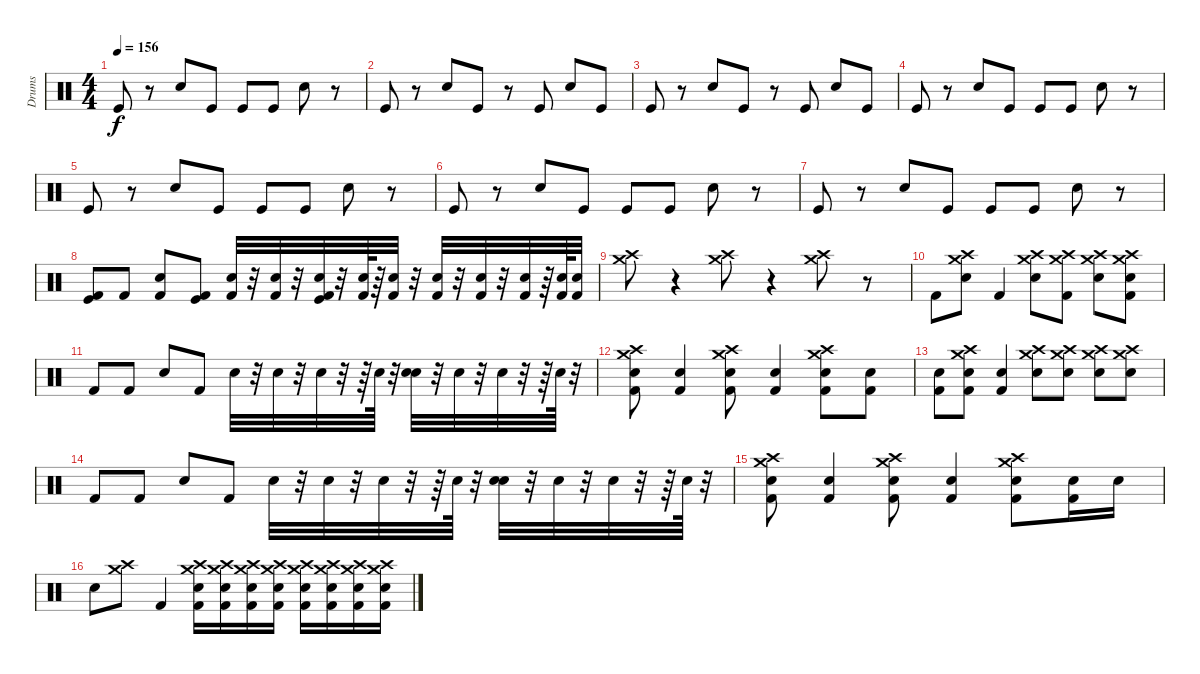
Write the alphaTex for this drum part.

\track ("Drums" "Drums") {instrument percussion}
\staff {score}
\articulation defaults
\ts (4 4)
\tempo 156
\clef neutral
\ks c "Kick (hit)".8{dy f}
r.8 "Snare (hit) 2".8 "Kick (hit)".8 "Kick (hit)".8 "Kick (hit)".8 "Snare (hit) 2".8 r.8 |
"Kick (hit)".8 r.8 "Snare (hit) 2".8 "Kick (hit)".8 r.8 "Kick (hit)".8 "Snare (hit) 2".8 "Kick (hit)".8 |
"Kick (hit)".8 r.8 "Snare (hit) 2".8 "Kick (hit)".8 r.8 "Kick (hit)".8 "Snare (hit) 2".8 "Kick (hit)".8 |
"Kick (hit)".8 r.8 "Snare (hit) 2".8 "Kick (hit)".8 "Kick (hit)".8 "Kick (hit)".8 "Snare (hit) 2".8 r.8 |
"Kick (hit)".8 r.8 "Snare (hit) 2".8 "Kick (hit)".8 "Kick (hit)".8 "Kick (hit)".8 "Snare (hit) 2".8 r.8 |
"Kick (hit)".8 r.8 "Snare (hit) 2".8 "Kick (hit)".8 "Kick (hit)".8 "Kick (hit)".8 "Snare (hit) 2".8 r.8 |
"Kick (hit)".8 r.8 "Snare (hit) 2".8 "Kick (hit)".8 "Kick (hit)".8 "Kick (hit)".8 "Snare (hit) 2".8 r.8 |
("Kick (hit)" "Kick (hit) 2").8 "Kick (hit) 2".8 ("Snare (hit) 2" "Kick (hit) 2").8 ("Kick (hit)" "Kick (hit) 2").8 ("Electric Snare (hit)" "Kick (hit) 2").32 r.32 ("Electric Snare (hit)" "Kick (hit) 2").32 r.32 ("Kick (hit)" "Electric Snare (hit)" "Kick (hit) 2").32 r.32 ("Electric Snare (hit)" "Kick (hit) 2").64 r.64 ("Electric Snare (hit)" "Kick (hit) 2").32 r.32 ("Electric Snare (hit)" "Kick (hit) 2").32 r.32 ("Electric Snare (hit)" "Kick (hit) 2").32 r.32 ("Electric Snare (hit)" "Kick (hit) 2").32 r.64 ("Electric Snare (hit)" "Kick (hit) 2").64 ("Electric Snare (hit)" "Kick (hit) 2").32 |
("Crash high (hit)" "Crash medium (hit)").8 r.4 ("Crash high (hit)" "Crash medium (hit)").8 r.4 ("Crash high (hit)" "Crash medium (hit)").8 r.8 |
"Kick (hit) 2".8 ("Crash high (hit)" "Crash medium (hit)" "Electric Snare (hit)").8 "Kick (hit) 2".4 ("Crash high (hit)" "Crash medium (hit)" "Electric Snare (hit)").8 ("Crash high (hit)" "Crash medium (hit)" "Kick (hit) 2").8 ("Crash high (hit)" "Crash medium (hit)" "Electric Snare (hit)").8 ("Crash high (hit)" "Crash medium (hit)" "Snare (hit) 2" "Kick (hit) 2").8 |
"Kick (hit) 2".8 "Kick (hit) 2".8 "Electric Snare (hit)".8 "Kick (hit) 2".8 "Electric Snare (hit)".32 r.32 "Electric Snare (hit)".32 r.32 "Electric Snare (hit)".32 r.32 r.64 "Electric Snare (hit)".64 r.32 ("Snare (hit) 2" "Electric Snare (hit)").32 r.32 "Electric Snare (hit)".32 r.32 "Electric Snare (hit)".32 r.32 r.64 "Electric Snare (hit)".64 r.32 |
("Crash high (hit)" "Crash medium (hit)" "Kick (hit) 2" "Electric Snare (hit)").8 ("Kick (hit) 2" "Electric Snare (hit)").4 ("Crash high (hit)" "Crash medium (hit)" "Kick (hit) 2" "Electric Snare (hit)").8 ("Kick (hit) 2" "Electric Snare (hit)").4 ("Crash high (hit)" "Crash medium (hit)" "Kick (hit) 2" "Electric Snare (hit)").8 ("Kick (hit) 2" "Electric Snare (hit)").8 |
("Kick (hit) 2" "Electric Snare (hit)").8 ("Crash high (hit)" "Crash medium (hit)" "Kick (hit) 2" "Electric Snare (hit)").8 ("Kick (hit) 2" "Electric Snare (hit)").4 ("Crash high (hit)" "Crash medium (hit)" "Electric Snare (hit)").8 ("Crash high (hit)" "Crash medium (hit)" "Electric Snare (hit)").8 ("Crash high (hit)" "Crash medium (hit)" "Electric Snare (hit)").8 ("Crash high (hit)" "Crash medium (hit)" "Electric Snare (hit)").8 |
"Kick (hit) 2".8 "Kick (hit) 2".8 "Electric Snare (hit)".8 "Kick (hit) 2".8 "Electric Snare (hit)".32 r.32 "Electric Snare (hit)".32 r.32 "Electric Snare (hit)".32 r.32 r.64 "Electric Snare (hit)".64 r.32 ("Snare (hit) 2" "Electric Snare (hit)").32 r.32 "Electric Snare (hit)".32 r.32 "Electric Snare (hit)".32 r.32 r.64 "Electric Snare (hit)".64 r.32 |
("Crash high (hit)" "Crash medium (hit)" "Kick (hit) 2" "Electric Snare (hit)").8 ("Kick (hit) 2" "Electric Snare (hit)").4 ("Crash high (hit)" "Crash medium (hit)" "Kick (hit) 2" "Electric Snare (hit)").8 ("Kick (hit) 2" "Electric Snare (hit)").4 ("Crash high (hit)" "Crash medium (hit)" "Kick (hit) 2" "Electric Snare (hit)").8 ("Kick (hit) 2" "Electric Snare (hit)").16 "Electric Snare (hit)".16 |
"Electric Snare (hit)".8 ("Crash high (hit)" "Crash medium (hit)").8 "Kick (hit) 2".4 ("Crash high (hit)" "Crash medium (hit)" "Electric Snare (hit)" "Kick (hit) 2").16 ("Crash high (hit)" "Crash medium (hit)" "Electric Snare (hit)" "Kick (hit) 2").16 ("Crash high (hit)" "Crash medium (hit)" "Electric Snare (hit)" "Kick (hit) 2").16 ("Crash high (hit)" "Crash medium (hit)" "Electric Snare (hit)" "Kick (hit) 2").16 ("Crash high (hit)" "Crash medium (hit)" "Electric Snare (hit)" "Kick (hit) 2").16 ("Crash high (hit)" "Crash medium (hit)" "Electric Snare (hit)" "Kick (hit) 2").16 ("Crash high (hit)" "Crash medium (hit)" "Electric Snare (hit)" "Kick (hit) 2").16 ("Crash high (hit)" "Crash medium (hit)" "Electric Snare (hit)" "Kick (hit) 2").16
